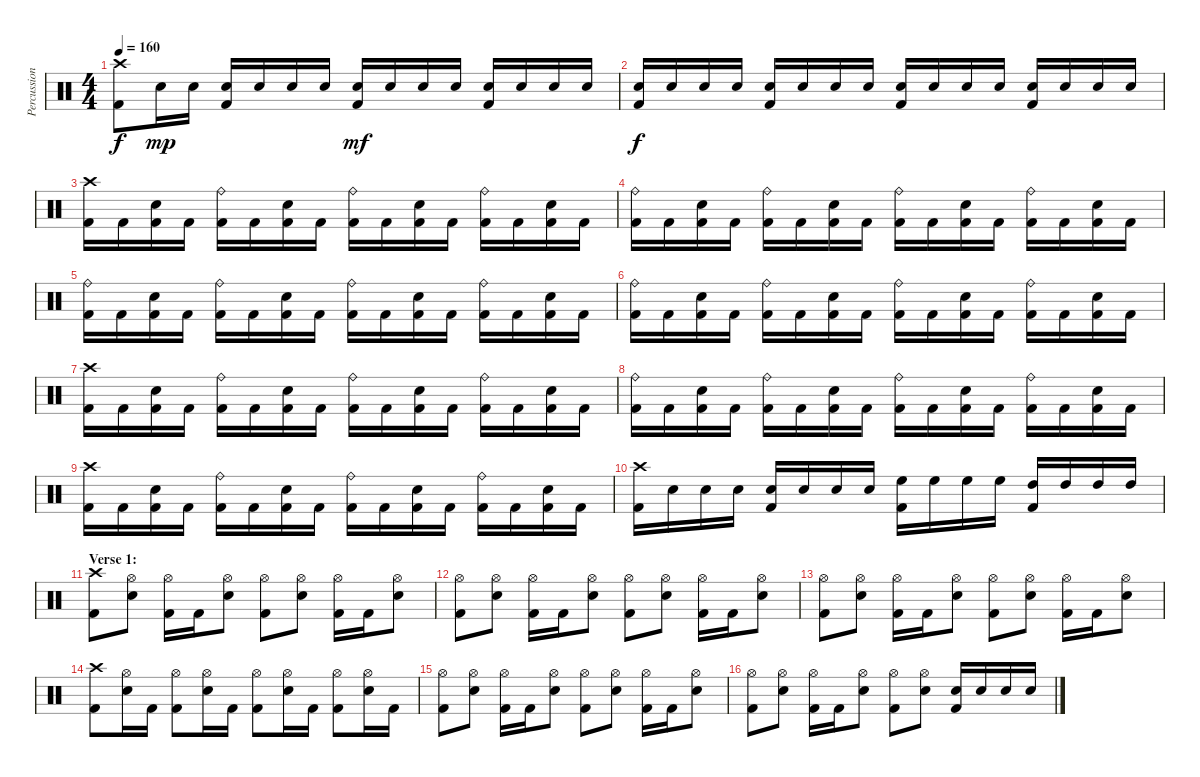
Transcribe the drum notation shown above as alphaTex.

\track ("Percussion" "Percussion") {instrument percussion}
\staff {score}
\articulation defaults
\ts (4 4)
\tempo 160
\clef neutral
\ks c
("Crash high (hit)" "Kick (hit) 2").8{dy f} "Electric Snare (hit)".16{dy mp} "Electric Snare (hit)".16 ("Electric Snare (hit)" "Kick (hit) 2").16 "Electric Snare (hit)".16 "Electric Snare (hit)".16 "Electric Snare (hit)".16 ("Electric Snare (hit)" "Kick (hit) 2").16{dy mf} "Electric Snare (hit)".16 "Electric Snare (hit)".16 "Electric Snare (hit)".16 ("Electric Snare (hit)" "Kick (hit) 2").16 "Electric Snare (hit)".16 "Electric Snare (hit)".16 "Electric Snare (hit)".16 |
("Electric Snare (hit)" "Kick (hit) 2").16{dy f} "Electric Snare (hit)".16 "Electric Snare (hit)".16 "Electric Snare (hit)".16 ("Electric Snare (hit)" "Kick (hit) 2").16 "Electric Snare (hit)".16 "Electric Snare (hit)".16 "Electric Snare (hit)".16 ("Electric Snare (hit)" "Kick (hit) 2").16 "Electric Snare (hit)".16 "Electric Snare (hit)".16 "Electric Snare (hit)".16 ("Electric Snare (hit)" "Kick (hit) 2").16 "Electric Snare (hit)".16 "Electric Snare (hit)".16 "Electric Snare (hit)".16 |
("Crash high (hit)" "Kick (hit) 2").16 "Kick (hit) 2".16 ("Electric Snare (hit)" "Kick (hit) 2").16 "Kick (hit) 2".16 ("Ride (bell)" "Kick (hit) 2").16 "Kick (hit) 2".16 ("Electric Snare (hit)" "Kick (hit) 2").16 "Kick (hit) 2".16 ("Ride (bell)" "Kick (hit) 2").16 "Kick (hit) 2".16 ("Electric Snare (hit)" "Kick (hit) 2").16 "Kick (hit) 2".16 ("Ride (bell)" "Kick (hit) 2").16 "Kick (hit) 2".16 ("Electric Snare (hit)" "Kick (hit) 2").16 "Kick (hit) 2".16 |
("Ride (bell)" "Kick (hit) 2").16 "Kick (hit) 2".16 ("Electric Snare (hit)" "Kick (hit) 2").16 "Kick (hit) 2".16 ("Ride (bell)" "Kick (hit) 2").16 "Kick (hit) 2".16 ("Electric Snare (hit)" "Kick (hit) 2").16 "Kick (hit) 2".16 ("Ride (bell)" "Kick (hit) 2").16 "Kick (hit) 2".16 ("Electric Snare (hit)" "Kick (hit) 2").16 "Kick (hit) 2".16 ("Ride (bell)" "Kick (hit) 2").16 "Kick (hit) 2".16 ("Electric Snare (hit)" "Kick (hit) 2").16 "Kick (hit) 2".16 |
("Ride (bell)" "Kick (hit) 2").16 "Kick (hit) 2".16 ("Electric Snare (hit)" "Kick (hit) 2").16 "Kick (hit) 2".16 ("Ride (bell)" "Kick (hit) 2").16 "Kick (hit) 2".16 ("Electric Snare (hit)" "Kick (hit) 2").16 "Kick (hit) 2".16 ("Ride (bell)" "Kick (hit) 2").16 "Kick (hit) 2".16 ("Electric Snare (hit)" "Kick (hit) 2").16 "Kick (hit) 2".16 ("Ride (bell)" "Kick (hit) 2").16 "Kick (hit) 2".16 ("Electric Snare (hit)" "Kick (hit) 2").16 "Kick (hit) 2".16 |
("Ride (bell)" "Kick (hit) 2").16 "Kick (hit) 2".16 ("Electric Snare (hit)" "Kick (hit) 2").16 "Kick (hit) 2".16 ("Ride (bell)" "Kick (hit) 2").16 "Kick (hit) 2".16 ("Electric Snare (hit)" "Kick (hit) 2").16 "Kick (hit) 2".16 ("Ride (bell)" "Kick (hit) 2").16 "Kick (hit) 2".16 ("Electric Snare (hit)" "Kick (hit) 2").16 "Kick (hit) 2".16 ("Ride (bell)" "Kick (hit) 2").16 "Kick (hit) 2".16 ("Electric Snare (hit)" "Kick (hit) 2").16 "Kick (hit) 2".16 |
("Crash high (hit)" "Kick (hit) 2").16 "Kick (hit) 2".16 ("Electric Snare (hit)" "Kick (hit) 2").16 "Kick (hit) 2".16 ("Ride (bell)" "Kick (hit) 2").16 "Kick (hit) 2".16 ("Electric Snare (hit)" "Kick (hit) 2").16 "Kick (hit) 2".16 ("Ride (bell)" "Kick (hit) 2").16 "Kick (hit) 2".16 ("Electric Snare (hit)" "Kick (hit) 2").16 "Kick (hit) 2".16 ("Ride (bell)" "Kick (hit) 2").16 "Kick (hit) 2".16 ("Electric Snare (hit)" "Kick (hit) 2").16 "Kick (hit) 2".16 |
("Ride (bell)" "Kick (hit) 2").16 "Kick (hit) 2".16 ("Electric Snare (hit)" "Kick (hit) 2").16 "Kick (hit) 2".16 ("Ride (bell)" "Kick (hit) 2").16 "Kick (hit) 2".16 ("Electric Snare (hit)" "Kick (hit) 2").16 "Kick (hit) 2".16 ("Ride (bell)" "Kick (hit) 2").16 "Kick (hit) 2".16 ("Electric Snare (hit)" "Kick (hit) 2").16 "Kick (hit) 2".16 ("Ride (bell)" "Kick (hit) 2").16 "Kick (hit) 2".16 ("Electric Snare (hit)" "Kick (hit) 2").16 "Kick (hit) 2".16 |
("Crash high (hit)" "Kick (hit) 2").16 "Kick (hit) 2".16 ("Electric Snare (hit)" "Kick (hit) 2").16 "Kick (hit) 2".16 ("Ride (bell)" "Kick (hit) 2").16 "Kick (hit) 2".16 ("Electric Snare (hit)" "Kick (hit) 2").16 "Kick (hit) 2".16 ("Ride (bell)" "Kick (hit) 2").16 "Kick (hit) 2".16 ("Electric Snare (hit)" "Kick (hit) 2").16 "Kick (hit) 2".16 ("Ride (bell)" "Kick (hit) 2").16 "Kick (hit) 2".16 ("Electric Snare (hit)" "Kick (hit) 2").16 "Kick (hit) 2".16 |
("Crash high (hit)" "Kick (hit) 2").16 "Electric Snare (hit)".16 "Electric Snare (hit)".16 "Electric Snare (hit)".16 ("Electric Snare (hit)" "Kick (hit) 2").16 "Electric Snare (hit)".16 "Electric Snare (hit)".16 "Electric Snare (hit)".16 ("High Floor Tom (hit)" "Kick (hit) 2").16 "High Floor Tom (hit)".16 "High Floor Tom (hit)".16 "High Floor Tom (hit)".16 ("High Tom (hit)" "Kick (hit) 2").16 "High Tom (hit)".16 "High Tom (hit)".16 "High Tom (hit)".16 |
\section ("" "Verse 1:")
("Crash high (hit)" "Kick (hit) 2").8 ("Hi-Hat (open)" "Electric Snare (hit)").8 ("Hi-Hat (open)" "Kick (hit) 2").16 "Kick (hit) 2".16 ("Hi-Hat (open)" "Electric Snare (hit)").8 ("Hi-Hat (open)" "Kick (hit) 2").8 ("Hi-Hat (open)" "Electric Snare (hit)").8 ("Hi-Hat (open)" "Kick (hit) 2").16 "Kick (hit) 2".16 ("Hi-Hat (open)" "Electric Snare (hit)").8 |
("Hi-Hat (open)" "Kick (hit) 2").8 ("Hi-Hat (open)" "Electric Snare (hit)").8 ("Hi-Hat (open)" "Kick (hit) 2").16 "Kick (hit) 2".16 ("Hi-Hat (open)" "Electric Snare (hit)").8 ("Hi-Hat (open)" "Kick (hit) 2").8 ("Hi-Hat (open)" "Electric Snare (hit)").8 ("Hi-Hat (open)" "Kick (hit) 2").16 "Kick (hit) 2".16 ("Hi-Hat (open)" "Electric Snare (hit)").8 |
("Hi-Hat (open)" "Kick (hit) 2").8 ("Hi-Hat (open)" "Electric Snare (hit)").8 ("Hi-Hat (open)" "Kick (hit) 2").16 "Kick (hit) 2".16 ("Hi-Hat (open)" "Electric Snare (hit)").8 ("Hi-Hat (open)" "Kick (hit) 2").8 ("Hi-Hat (open)" "Electric Snare (hit)").8 ("Hi-Hat (open)" "Kick (hit) 2").16 "Kick (hit) 2".16 ("Hi-Hat (open)" "Electric Snare (hit)").8 |
("Crash high (hit)" "Kick (hit) 2").8 ("Hi-Hat (open)" "Electric Snare (hit)").16 "Kick (hit) 2".16 ("Hi-Hat (open)" "Kick (hit) 2").8 ("Hi-Hat (open)" "Electric Snare (hit)").16 "Kick (hit) 2".16 ("Hi-Hat (open)" "Kick (hit) 2").8 ("Hi-Hat (open)" "Electric Snare (hit)").16 "Kick (hit) 2".16 ("Hi-Hat (open)" "Kick (hit) 2").8 ("Hi-Hat (open)" "Electric Snare (hit)").16 "Kick (hit) 2".16 |
("Hi-Hat (open)" "Kick (hit) 2").8 ("Hi-Hat (open)" "Electric Snare (hit)").8 ("Hi-Hat (open)" "Kick (hit) 2").16 "Kick (hit) 2".16 ("Hi-Hat (open)" "Electric Snare (hit)").8 ("Hi-Hat (open)" "Kick (hit) 2").8 ("Hi-Hat (open)" "Electric Snare (hit)").8 ("Hi-Hat (open)" "Kick (hit) 2").16 "Kick (hit) 2".16 ("Hi-Hat (open)" "Electric Snare (hit)").8 |
("Hi-Hat (open)" "Kick (hit) 2").8 ("Hi-Hat (open)" "Electric Snare (hit)").8 ("Hi-Hat (open)" "Kick (hit) 2").16 "Kick (hit) 2".16 ("Hi-Hat (open)" "Electric Snare (hit)").8 ("Hi-Hat (open)" "Kick (hit) 2").8 ("Hi-Hat (open)" "Electric Snare (hit)").8 ("Electric Snare (hit)" "Kick (hit) 2").16 "Electric Snare (hit)".16 "Electric Snare (hit)".16 "Electric Snare (hit)".16
